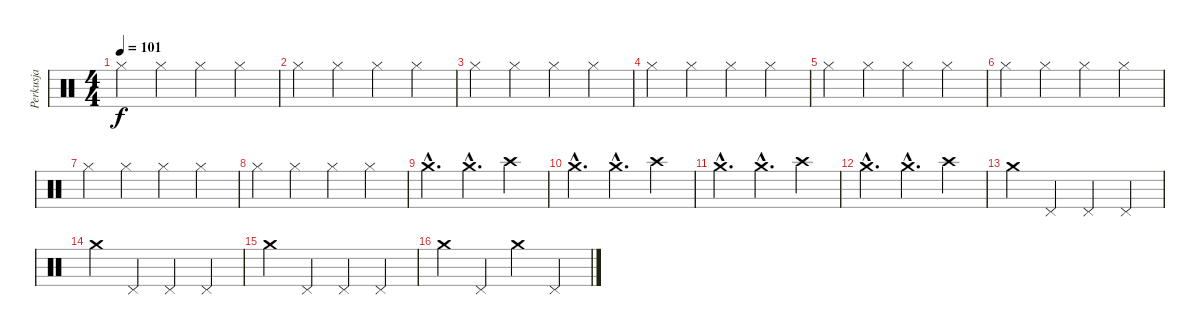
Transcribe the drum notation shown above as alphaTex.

\track ("Perkusja" "Perkusja") {instrument percussion}
\staff {score}
\articulation defaults
\ts (4 4)
\tempo 101
\clef neutral
\ks c "Hi-Hat (closed)".4{dy f} "Hi-Hat (closed)".4 "Hi-Hat (closed)".4 "Hi-Hat (closed)".4
|
"Hi-Hat (closed)".4 "Hi-Hat (closed)".4 "Hi-Hat (closed)".4 "Hi-Hat (closed)".4 |
"Hi-Hat (closed)".4 "Hi-Hat (closed)".4 "Hi-Hat (closed)".4 "Hi-Hat (closed)".4 |
"Hi-Hat (closed)".4 "Hi-Hat (closed)".4 "Hi-Hat (closed)".4 "Hi-Hat (closed)".4 |
"Hi-Hat (closed)".4 "Hi-Hat (closed)".4 "Hi-Hat (closed)".4 "Hi-Hat (closed)".4 |
"Hi-Hat (closed)".4 "Hi-Hat (closed)".4 "Hi-Hat (closed)".4 "Hi-Hat (closed)".4 |
"Hi-Hat (closed)".4 "Hi-Hat (closed)".4 "Hi-Hat (closed)".4 "Hi-Hat (closed)".4 |
"Hi-Hat (closed)".4 "Hi-Hat (closed)".4 "Hi-Hat (closed)".4 "Hi-Hat (closed)".4 |
"Crash medium (hit)"{hac}.4{d} "Crash medium (hit)"{hac}.4{d} "Crash high (hit)".4 |
"Crash medium (hit)"{hac}.4{d} "Crash medium (hit)"{hac}.4{d} "Crash high (hit)".4 |
"Crash medium (hit)"{hac}.4{d} "Crash medium (hit)"{hac}.4{d} "Crash high (hit)".4 |
"Crash medium (hit)"{hac}.4{d} "Crash medium (hit)"{hac}.4{d} "Crash high (hit)".4 |
"Crash medium (hit)".4 "Pedal Hi-Hat (hit)".4 "Pedal Hi-Hat (hit)".4 "Pedal Hi-Hat (hit)".4 |
"Crash medium (hit)".4 "Pedal Hi-Hat (hit)".4 "Pedal Hi-Hat (hit)".4 "Pedal Hi-Hat (hit)".4 |
"Crash medium (hit)".4 "Pedal Hi-Hat (hit)".4 "Pedal Hi-Hat (hit)".4 "Pedal Hi-Hat (hit)".4 |
"Crash medium (hit)".4 "Pedal Hi-Hat (hit)".4 "Crash medium (hit)".4 "Pedal Hi-Hat (hit)".4
